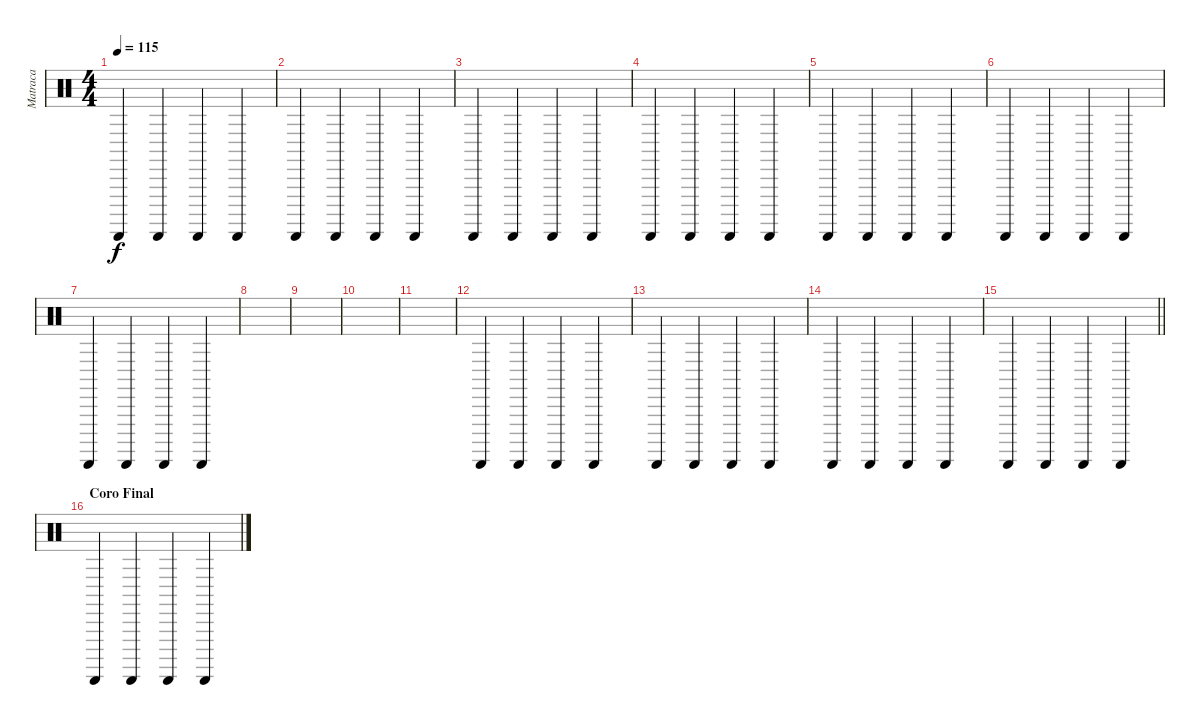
\track ("Matraca" "Matraca") {instrument percussion}
\staff {score}
\articulation defaults
\ts (4 4)
\tempo 115
\clef neutral
\ks c "Guiro (scrap-return)".4{dy f} "Guiro (scrap-return)".4 "Guiro (scrap-return)".4 "Guiro (scrap-return)".4
|
"Guiro (scrap-return)".4 "Guiro (scrap-return)".4 "Guiro (scrap-return)".4 "Guiro (scrap-return)".4 |
"Guiro (scrap-return)".4 "Guiro (scrap-return)".4 "Guiro (scrap-return)".4 "Guiro (scrap-return)".4 |
"Guiro (scrap-return)".4 "Guiro (scrap-return)".4 "Guiro (scrap-return)".4 "Guiro (scrap-return)".4 |
"Guiro (scrap-return)".4 "Guiro (scrap-return)".4 "Guiro (scrap-return)".4 "Guiro (scrap-return)".4 |
"Guiro (scrap-return)".4 "Guiro (scrap-return)".4 "Guiro (scrap-return)".4 "Guiro (scrap-return)".4 |
"Guiro (scrap-return)".4 "Guiro (scrap-return)".4 "Guiro (scrap-return)".4 "Guiro (scrap-return)".4 |
|
|
|
|
"Guiro (scrap-return)".4 "Guiro (scrap-return)".4 "Guiro (scrap-return)".4 "Guiro (scrap-return)".4 |
"Guiro (scrap-return)".4 "Guiro (scrap-return)".4 "Guiro (scrap-return)".4 "Guiro (scrap-return)".4 |
"Guiro (scrap-return)".4 "Guiro (scrap-return)".4 "Guiro (scrap-return)".4 "Guiro (scrap-return)".4 |
\barLineRight lightlight "Guiro (scrap-return)".4 "Guiro (scrap-return)".4 "Guiro (scrap-return)".4 "Guiro (scrap-return)".4
|
\section ("" "Coro Final")
"Guiro (scrap-return)".4 "Guiro (scrap-return)".4 "Guiro (scrap-return)".4 "Guiro (scrap-return)".4
